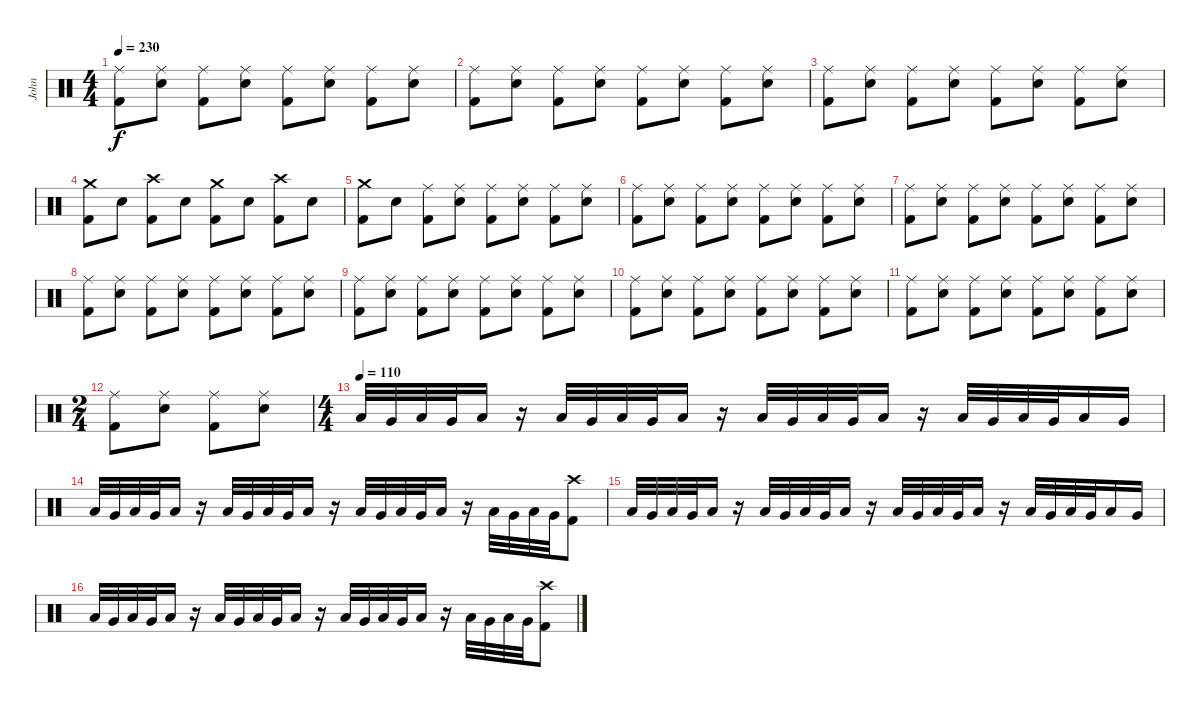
\track ("John" "John") {instrument percussion}
\staff {score}
\articulation defaults
\ts (4 4)
\tempo 230
\clef neutral
\ks c
("Ride (middle)" "Kick (hit) 2").8{dy f} ("Ride (middle)" "Electric Snare (hit)").8 ("Ride (middle)" "Kick (hit) 2").8 ("Ride (middle)" "Electric Snare (hit)").8 ("Ride (middle)" "Kick (hit) 2").8 ("Ride (middle)" "Electric Snare (hit)").8 ("Ride (middle)" "Kick (hit) 2").8 ("Ride (middle)" "Electric Snare (hit)").8 |
("Ride (middle)" "Kick (hit) 2").8 ("Ride (middle)" "Electric Snare (hit)").8 ("Ride (middle)" "Kick (hit) 2").8 ("Ride (middle)" "Electric Snare (hit)").8 ("Ride (middle)" "Kick (hit) 2").8 ("Ride (middle)" "Electric Snare (hit)").8 ("Ride (middle)" "Kick (hit) 2").8 ("Ride (middle)" "Electric Snare (hit)").8 |
("Ride (middle)" "Kick (hit) 2").8 ("Ride (middle)" "Electric Snare (hit)").8 ("Ride (middle)" "Kick (hit) 2").8 ("Ride (middle)" "Electric Snare (hit)").8 ("Ride (middle)" "Kick (hit) 2").8 ("Ride (middle)" "Electric Snare (hit)").8 ("Ride (middle)" "Kick (hit) 2").8 ("Ride (middle)" "Electric Snare (hit)").8 |
("Crash medium (hit)" "Kick (hit) 2").8 "Electric Snare (hit)".8 ("Crash high (hit)" "Kick (hit) 2").8 "Electric Snare (hit)".8 ("Crash medium (hit)" "Kick (hit) 2").8 "Electric Snare (hit)".8 ("Crash high (hit)" "Kick (hit) 2").8 "Electric Snare (hit)".8 |
("Crash medium (hit)" "Kick (hit) 2").8 "Electric Snare (hit)".8 ("Ride (middle)" "Kick (hit) 2").8 ("Ride (middle)" "Electric Snare (hit)").8 ("Ride (middle)" "Kick (hit) 2").8 ("Ride (middle)" "Electric Snare (hit)").8 ("Ride (middle)" "Kick (hit) 2").8 ("Ride (middle)" "Electric Snare (hit)").8 |
("Ride (middle)" "Kick (hit) 2").8 ("Ride (middle)" "Electric Snare (hit)").8 ("Ride (middle)" "Kick (hit) 2").8 ("Ride (middle)" "Electric Snare (hit)").8 ("Ride (middle)" "Kick (hit) 2").8 ("Ride (middle)" "Electric Snare (hit)").8 ("Ride (middle)" "Kick (hit) 2").8 ("Ride (middle)" "Electric Snare (hit)").8 |
("Ride (middle)" "Kick (hit) 2").8 ("Ride (middle)" "Electric Snare (hit)").8 ("Ride (middle)" "Kick (hit) 2").8 ("Ride (middle)" "Electric Snare (hit)").8 ("Ride (middle)" "Kick (hit) 2").8 ("Ride (middle)" "Electric Snare (hit)").8 ("Ride (middle)" "Kick (hit) 2").8 ("Ride (middle)" "Electric Snare (hit)").8 |
("Ride (middle)" "Kick (hit) 2").8 ("Ride (middle)" "Electric Snare (hit)").8 ("Ride (middle)" "Kick (hit) 2").8 ("Ride (middle)" "Electric Snare (hit)").8 ("Ride (middle)" "Kick (hit) 2").8 ("Ride (middle)" "Electric Snare (hit)").8 ("Ride (middle)" "Kick (hit) 2").8 ("Ride (middle)" "Electric Snare (hit)").8 |
("Ride (middle)" "Kick (hit) 2").8 ("Ride (middle)" "Electric Snare (hit)").8 ("Ride (middle)" "Kick (hit) 2").8 ("Ride (middle)" "Electric Snare (hit)").8 ("Ride (middle)" "Kick (hit) 2").8 ("Ride (middle)" "Electric Snare (hit)").8 ("Ride (middle)" "Kick (hit) 2").8 ("Ride (middle)" "Electric Snare (hit)").8 |
("Ride (middle)" "Kick (hit) 2").8 ("Ride (middle)" "Electric Snare (hit)").8 ("Ride (middle)" "Kick (hit) 2").8 ("Ride (middle)" "Electric Snare (hit)").8 ("Ride (middle)" "Kick (hit) 2").8 ("Ride (middle)" "Electric Snare (hit)").8 ("Ride (middle)" "Kick (hit) 2").8 ("Ride (middle)" "Electric Snare (hit)").8 |
("Ride (middle)" "Kick (hit) 2").8 ("Ride (middle)" "Electric Snare (hit)").8 ("Ride (middle)" "Kick (hit) 2").8 ("Ride (middle)" "Electric Snare (hit)").8 ("Ride (middle)" "Kick (hit) 2").8 ("Ride (middle)" "Electric Snare (hit)").8 ("Ride (middle)" "Kick (hit) 2").8 ("Ride (middle)" "Electric Snare (hit)").8 |
\ts (2 4)
("Ride (middle)" "Kick (hit) 2").8 ("Ride (middle)" "Electric Snare (hit)").8 ("Ride (middle)" "Kick (hit) 2").8 ("Ride (middle)" "Electric Snare (hit)").8 |
\ts (4 4)
\tempo (110)
"Low Tom (hit)".32 "Very Low Tom (hit)".32 "Low Tom (hit)".32 "Very Low Tom (hit)".32 "Low Tom (hit)".16 r.16 "Low Tom (hit)".32 "Very Low Tom (hit)".32 "Low Tom (hit)".32 "Very Low Tom (hit)".32 "Low Tom (hit)".16 r.16 "Low Tom (hit)".32 "Very Low Tom (hit)".32 "Low Tom (hit)".32 "Very Low Tom (hit)".32 "Low Tom (hit)".16 r.16 "Low Tom (hit)".32 "Very Low Tom (hit)".32 "Low Tom (hit)".32 "Very Low Tom (hit)".32 "Low Tom (hit)".16 "Very Low Tom (hit)".16 |
"Low Tom (hit)".32 "Very Low Tom (hit)".32 "Low Tom (hit)".32 "Very Low Tom (hit)".32 "Low Tom (hit)".16 r.16 "Low Tom (hit)".32 "Very Low Tom (hit)".32 "Low Tom (hit)".32 "Very Low Tom (hit)".32 "Low Tom (hit)".16 r.16 "Low Tom (hit)".32 "Very Low Tom (hit)".32 "Low Tom (hit)".32 "Very Low Tom (hit)".32 "Low Tom (hit)".16 r.16 "Low Tom (hit)".32 "Very Low Tom (hit)".32 "Low Tom (hit)".32 "Very Low Tom (hit)".32 ("Crash high (hit)" "Kick (hit) 2").8 |
"Low Tom (hit)".32 "Very Low Tom (hit)".32 "Low Tom (hit)".32 "Very Low Tom (hit)".32 "Low Tom (hit)".16 r.16 "Low Tom (hit)".32 "Very Low Tom (hit)".32 "Low Tom (hit)".32 "Very Low Tom (hit)".32 "Low Tom (hit)".16 r.16 "Low Tom (hit)".32 "Very Low Tom (hit)".32 "Low Tom (hit)".32 "Very Low Tom (hit)".32 "Low Tom (hit)".16 r.16 "Low Tom (hit)".32 "Very Low Tom (hit)".32 "Low Tom (hit)".32 "Very Low Tom (hit)".32 "Low Tom (hit)".16 "Very Low Tom (hit)".16 |
"Low Tom (hit)".32 "Very Low Tom (hit)".32 "Low Tom (hit)".32 "Very Low Tom (hit)".32 "Low Tom (hit)".16 r.16 "Low Tom (hit)".32 "Very Low Tom (hit)".32 "Low Tom (hit)".32 "Very Low Tom (hit)".32 "Low Tom (hit)".16 r.16 "Low Tom (hit)".32 "Very Low Tom (hit)".32 "Low Tom (hit)".32 "Very Low Tom (hit)".32 "Low Tom (hit)".16 r.16 "Low Tom (hit)".32 "Very Low Tom (hit)".32 "Low Tom (hit)".32 "Very Low Tom (hit)".32 ("Crash high (hit)" "Kick (hit) 2").8
